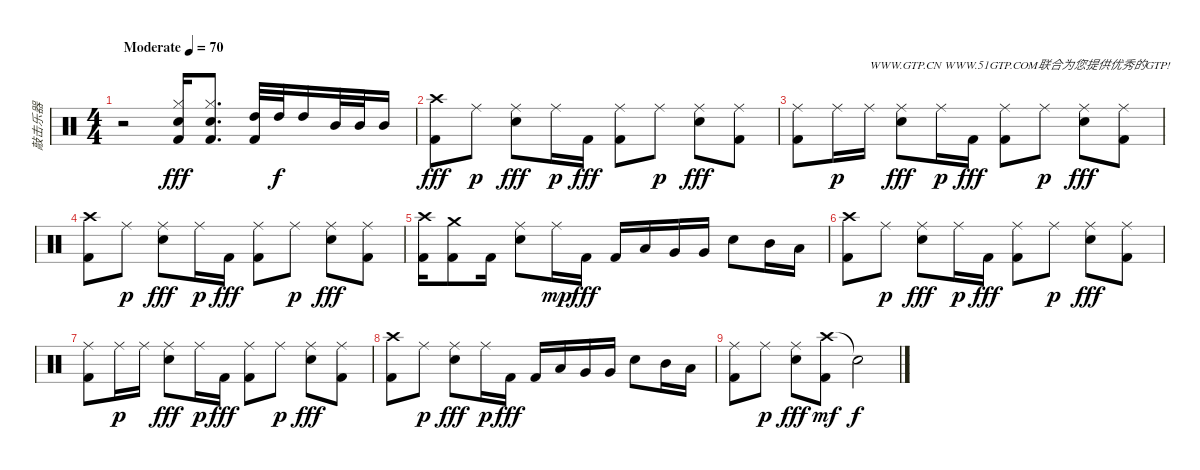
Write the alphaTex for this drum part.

\track ("敲击乐器" "敲击乐器") {instrument percussion}
\staff {score}
\articulation defaults
\ts (4 4)
\tempo (70 "Moderate")
\clef neutral
\ks c
r.2{dy fff} ("Electric Snare (hit)" "Hi-Hat (closed)" "Kick (hit) 2").16 ("Electric Snare (hit)" "Hi-Hat (closed)" "Kick (hit) 2").8{d} ("High Tom (hit)" "Kick (hit) 2").32 "High Tom (hit)".32{dy f} "High Tom (hit)".16 "Mid Tom (hit)".32 "Mid Tom (hit)".32 "Mid Tom (hit)".16 |
("Crash high (hit)" "Kick (hit) 2").8{dy fff} "Ride (middle)".8{dy p} ("Ride (middle)" "Electric Snare (hit)").8{dy fff} "Ride (middle)".16{dy p} "Kick (hit) 2".16{dy fff} ("Ride (middle)" "Kick (hit) 2").8 "Ride (middle)".8{dy p} ("Ride (middle)" "Electric Snare (hit)").8{dy fff} ("Ride (middle)" "Kick (hit) 2").8 |
("Ride (middle)" "Kick (hit) 2").8 "Ride (middle)".16{dy p} "Ride (middle)".16{txt "WWW.GTP.CN WWW.51GTP.COM联合为您提供优秀的GTP!"} ("Ride (middle)" "Electric Snare (hit)").8{dy fff} "Ride (middle)".16{dy p} "Kick (hit) 2".16{dy fff} ("Ride (middle)" "Kick (hit) 2").8 "Ride (middle)".8{dy p} ("Ride (middle)" "Electric Snare (hit)").8{dy fff} ("Ride (middle)" "Kick (hit) 2").8 |
("Crash high (hit)" "Kick (hit) 2").8 "Ride (middle)".8{dy p} ("Ride (middle)" "Electric Snare (hit)").8{dy fff} "Ride (middle)".16{dy p} "Kick (hit) 2".16{dy fff} ("Ride (middle)" "Kick (hit) 2").8 "Ride (middle)".8{dy p} ("Ride (middle)" "Electric Snare (hit)").8{dy fff} ("Ride (middle)" "Kick (hit) 2").8 |
("Crash high (hit)" "Kick (hit) 2").16 ("Crash medium (hit)" "Kick (hit) 2").8 "Kick (hit) 2".16 ("Ride (middle)" "Electric Snare (hit)").8 "Ride (middle)".16{dy mp} "Kick (hit) 2".16{dy fff} "Kick (hit) 2".16 "Low Tom (hit)".16 "Very Low Tom (hit)".16 "Very Low Tom (hit)".16 "Electric Snare (hit)".8 "Mid Tom (hit)".16 "Low Tom (hit)".16 |
("Crash high (hit)" "Kick (hit) 2").8 "Ride (middle)".8{dy p} ("Ride (middle)" "Electric Snare (hit)").8{dy fff} "Ride (middle)".16{dy p} "Kick (hit) 2".16{dy fff} ("Ride (middle)" "Kick (hit) 2").8 "Ride (middle)".8{dy p} ("Ride (middle)" "Electric Snare (hit)").8{dy fff} ("Ride (middle)" "Kick (hit) 2").8 |
("Ride (middle)" "Kick (hit) 2").8 "Ride (middle)".16{dy p} "Ride (middle)".16 ("Ride (middle)" "Electric Snare (hit)").8{dy fff} "Ride (middle)".16{dy p} "Kick (hit) 2".16{dy fff} ("Ride (middle)" "Kick (hit) 2").8 "Ride (middle)".8{dy p} ("Ride (middle)" "Electric Snare (hit)").8{dy fff} ("Ride (middle)" "Kick (hit) 2").8 |
("Crash high (hit)" "Kick (hit) 2").8 "Ride (middle)".8{dy p} ("Ride (middle)" "Electric Snare (hit)").8{dy fff} "Ride (middle)".16{dy p} "Kick (hit) 2".16{dy fff} "Kick (hit) 2".16 "Low Tom (hit)".16 "Very Low Tom (hit)".16 "Very Low Tom (hit)".16 "Electric Snare (hit)".8 "Mid Tom (hit)".16 "Low Tom (hit)".16 |
("Ride (middle)" "Kick (hit) 2").8 "Ride (middle)".8{dy p} ("Ride (middle)" "Electric Snare (hit)").8{dy fff} ("Crash high (hit)" "Kick (hit) 2").8{dy mf} "Snare (hit)"{t}.2{dy f}
